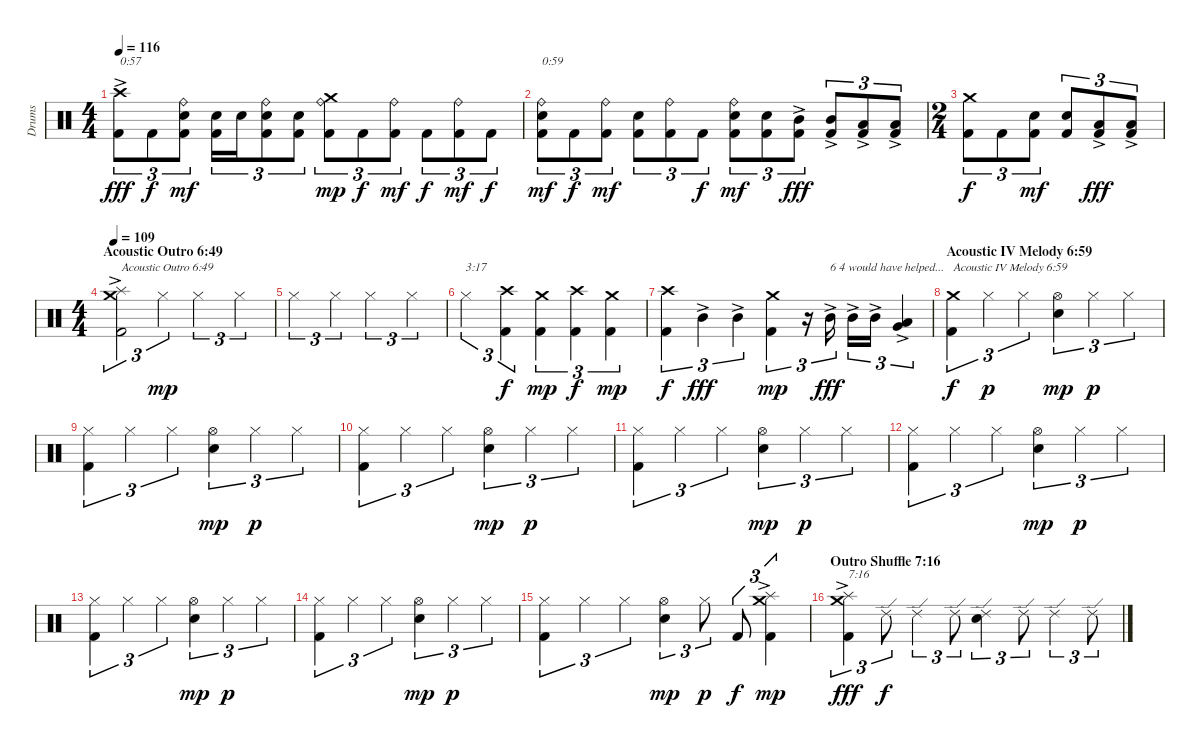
\track ("Drums" "Drums") {instrument percussion}
\staff {score}
\articulation defaults
\ts (4 4)
\tempo 116
\clef neutral
\ks c
("Kick (hit) 2" "Crash high (hit)"{ac}).8{tu (3 2) txt "0:57" dy fff} "Kick (hit) 2".8{tu (3 2) dy f} ("Kick (hit) 2" "Electric Snare (hit)" "Ride (bell)").8{tu (3 2) dy mf} ("Kick (hit) 2" "Electric Snare (hit)").16{tu (3 2)} "Electric Snare (hit)".16{tu (3 2)} ("Kick (hit) 2" "Electric Snare (hit)" "Ride (bell)").8{tu (3 2)} ("Kick (hit) 2" "Electric Snare (hit)").8{tu (3 2)} ("Kick (hit) 2" "Ride (bell)" "Crash medium (hit)").8{tu (3 2) dy mp} "Kick (hit) 2".8{tu (3 2) dy f} ("Kick (hit) 2" "Ride (bell)").8{tu (3 2) dy mf} "Kick (hit) 2".8{tu (3 2) dy f} ("Kick (hit) 2" "Ride (bell)").8{tu (3 2) dy mf} "Kick (hit) 2".8{tu (3 2) dy f} |
("Kick (hit) 2" "Electric Snare (hit)" "Ride (bell)").8{tu (3 2) txt "0:59" dy mf} "Kick (hit) 2".8{tu (3 2) dy f} ("Kick (hit) 2" "Ride (bell)").8{tu (3 2) dy mf} ("Kick (hit) 2" "Electric Snare (hit)").8{tu (3 2)} ("Kick (hit) 2" "Ride (bell)").8{tu (3 2)} "Kick (hit) 2".8{tu (3 2) dy f} ("Kick (hit) 2" "Electric Snare (hit)" "Ride (bell)").8{tu (3 2) dy mf} ("Kick (hit) 2" "Electric Snare (hit)").8{tu (3 2)} ("Kick (hit) 2" "Mid Tom (hit)"{ac}).8{tu (3 2) dy fff} ("Kick (hit) 2" "Mid Tom (hit)"{ac}).8{tu (3 2)} ("Kick (hit) 2" "Low Tom (hit)"{ac}).8{tu (3 2)} ("Kick (hit) 2" "Low Tom (hit)"{ac}).8{tu (3 2)} |
\ts (2 4)
("Kick (hit) 2" "Crash medium (hit)").8{tu (3 2) dy f} "Kick (hit) 2".8{tu (3 2)} ("Kick (hit) 2" "Electric Snare (hit)").8{tu (3 2) dy mf} ("Kick (hit) 2" "Electric Snare (hit)").8{tu (3 2)} ("Kick (hit) 2" "Low Tom (hit)"{ac}).8{tu (3 2) dy fff} ("Kick (hit) 2" "Low Tom (hit)"{ac}).8{tu (3 2)} |
\ts (4 4)
\section ("" "Acoustic Outro 6:49")
\tempo 109
("Kick (hit) 2" "Splash (hit)" "Crash medium (hit)"{ac}).2{tu (3 2) txt "Acoustic Outro 6:49"} "Hi-Hat (closed)".4{tu (3 2) dy mp} "Hi-Hat (closed)".2{tu (3 2)} "Hi-Hat (closed)".4{tu (3 2)} |
"Hi-Hat (closed)".2{tu (3 2)} "Hi-Hat (closed)".4{tu (3 2)} "Hi-Hat (closed)".2{tu (3 2)} "Hi-Hat (closed)".4{tu (3 2)} |
"Hi-Hat (closed)".2{tu (3 2) txt "3:17"} ("Kick (hit) 2" "Crash high (hit)").4{tu (3 2) dy f} ("Kick (hit) 2" "Crash medium (hit)").4{tu (3 2) dy mp} ("Kick (hit) 2" "Crash high (hit)").4{tu (3 2) dy f} ("Kick (hit) 2" "Crash medium (hit)").4{tu (3 2) dy mp} |
("Kick (hit) 2" "Crash high (hit)").4{tu (3 2) dy f} "Mid Tom (hit)"{ac}.4{tu (3 2) dy fff} "Mid Tom (hit)"{ac}.4{tu (3 2)} ("Kick (hit) 2" "Crash medium (hit)").4{tu (3 2) dy mp} r.16{tu (3 2)} "Mid Tom (hit)"{ac}.16{tu (3 2) txt "6 4 would have helped..." dy fff} "Mid Tom (hit)"{ac}.16{tu (3 2)} "Mid Tom (hit)"{ac}.16{tu (3 2)} ("Low Tom (hit)"{ac} "Very Low Tom (hit)"{ac}).4{tu (3 2)} |
\section ("" "Acoustic IV Melody 6:59")
("Kick (hit) 2" "Crash medium (hit)").4{tu (3 2) txt "Acoustic IV Melody 6:59" dy f} "Hi-Hat (closed)".4{tu (3 2) dy p} "Hi-Hat (closed)".4{tu (3 2)} ("Electric Snare (hit)" "Hi-Hat (open)").4{tu (3 2) dy mp} "Hi-Hat (closed)".4{tu (3 2) dy p} "Hi-Hat (closed)".4{tu (3 2)} |
("Kick (hit) 2" "Hi-Hat (closed)").4{tu (3 2)} "Hi-Hat (closed)".4{tu (3 2)} "Hi-Hat (closed)".4{tu (3 2)} ("Electric Snare (hit)" "Hi-Hat (open)").4{tu (3 2) dy mp} "Hi-Hat (closed)".4{tu (3 2) dy p} "Hi-Hat (closed)".4{tu (3 2)} |
("Kick (hit) 2" "Hi-Hat (closed)").4{tu (3 2)} "Hi-Hat (closed)".4{tu (3 2)} "Hi-Hat (closed)".4{tu (3 2)} ("Electric Snare (hit)" "Hi-Hat (open)").4{tu (3 2) dy mp} "Hi-Hat (closed)".4{tu (3 2) dy p} "Hi-Hat (closed)".4{tu (3 2)} |
("Kick (hit) 2" "Hi-Hat (closed)").4{tu (3 2)} "Hi-Hat (closed)".4{tu (3 2)} "Hi-Hat (closed)".4{tu (3 2)} ("Electric Snare (hit)" "Hi-Hat (open)").4{tu (3 2) dy mp} "Hi-Hat (closed)".4{tu (3 2) dy p} "Hi-Hat (closed)".4{tu (3 2)} |
("Kick (hit) 2" "Hi-Hat (closed)").4{tu (3 2)} "Hi-Hat (closed)".4{tu (3 2)} "Hi-Hat (closed)".4{tu (3 2)} ("Electric Snare (hit)" "Hi-Hat (open)").4{tu (3 2) dy mp} "Hi-Hat (closed)".4{tu (3 2) dy p} "Hi-Hat (closed)".4{tu (3 2)} |
("Kick (hit) 2" "Hi-Hat (closed)").4{tu (3 2)} "Hi-Hat (closed)".4{tu (3 2)} "Hi-Hat (closed)".4{tu (3 2)} ("Electric Snare (hit)" "Hi-Hat (open)").4{tu (3 2) dy mp} "Hi-Hat (closed)".4{tu (3 2) dy p} "Hi-Hat (closed)".4{tu (3 2)} |
("Kick (hit) 2" "Hi-Hat (closed)").4{tu (3 2)} "Hi-Hat (closed)".4{tu (3 2)} "Hi-Hat (closed)".4{tu (3 2)} ("Electric Snare (hit)" "Hi-Hat (open)").4{tu (3 2) dy mp} "Hi-Hat (closed)".4{tu (3 2) dy p} "Hi-Hat (closed)".4{tu (3 2)} |
("Kick (hit) 2" "Hi-Hat (closed)").4{tu (3 2)} "Hi-Hat (closed)".4{tu (3 2)} "Hi-Hat (closed)".4{tu (3 2)} ("Electric Snare (hit)" "Hi-Hat (open)").4{tu (3 2) dy mp} "Hi-Hat (closed)".8{tu (3 2) dy p} "Kick (hit) 2".8{tu (3 2) dy f} ("Kick (hit) 2" "Splash (hit)"{ac} "Crash medium (hit)").4{tu (3 2) dy mp} |
\section ("" "Outro Shuffle 7:16")
("Kick (hit) 2" "Splash (hit)"{ac} "Crash medium (hit)"{ac}).4{tu (3 2) txt "7:16" dy fff} "Ride (edge) 2".8{tu (3 2) dy f} "Ride (edge) 2".4{tu (3 2)} "Ride (edge) 2".8{tu (3 2)} ("Electric Snare (hit)" "Ride (edge) 2").4{tu (3 2)} "Ride (edge) 2".8{tu (3 2)} "Ride (edge) 2".4{tu (3 2)} "Ride (edge) 2".8{tu (3 2)}
